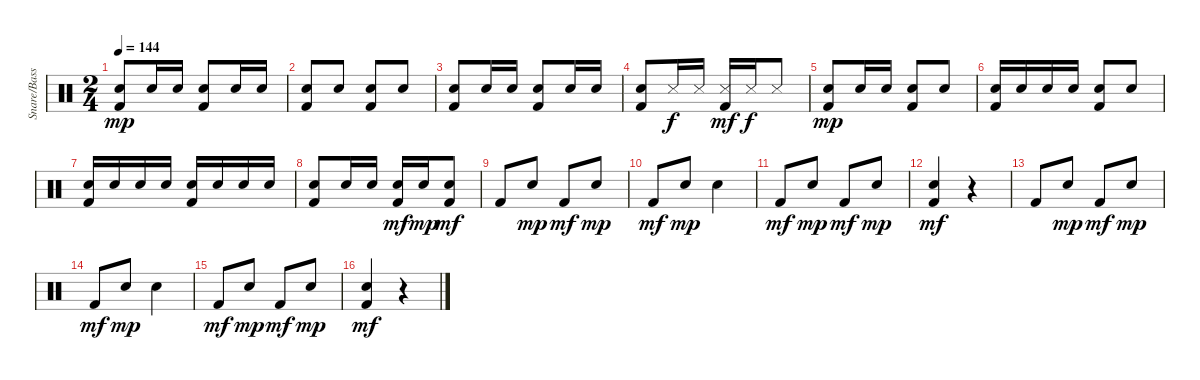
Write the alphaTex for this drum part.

\track ("Snare/Bass Dr       " "Snare/Bass") {instrument percussion}
\staff {score}
\articulation defaults
\ts (2 4)
\tempo 144
\clef neutral
\ks c
("Kick (hit) 2" "Snare (hit) 2").8{dy mp} "Snare (hit) 2".16 "Snare (hit) 2".16 ("Kick (hit) 2" "Snare (hit) 2").8 "Snare (hit) 2".16 "Snare (hit) 2".16 |
("Kick (hit) 2" "Snare (hit) 2").8 "Snare (hit) 2".8 ("Kick (hit) 2" "Snare (hit) 2").8 "Snare (hit) 2".8 |
("Kick (hit) 2" "Snare (hit) 2").8 "Snare (hit) 2".16 "Snare (hit) 2".16 ("Kick (hit) 2" "Snare (hit) 2").8 "Snare (hit) 2".16 "Snare (hit) 2".16 |
("Kick (hit) 2" "Snare (hit) 2").8 "Snare (side stick) 3".16{dy f} "Snare (side stick) 3".16 ("Kick (hit) 2" "Snare (side stick) 3").16{dy mf} "Snare (side stick) 3".16{dy f} "Snare (side stick) 3".8 |
("Kick (hit) 2" "Snare (hit) 2").8{dy mp} "Snare (hit) 2".16 "Snare (hit) 2".16 ("Kick (hit) 2" "Snare (hit) 2").8 "Snare (hit) 2".8 |
("Kick (hit) 2" "Snare (hit) 2").16 "Snare (hit) 2".16 "Snare (hit) 2".16 "Snare (hit) 2".16 ("Kick (hit) 2" "Snare (hit) 2").8 "Snare (hit) 2".8 |
("Kick (hit) 2" "Snare (hit) 2").16 "Snare (hit) 2".16 "Snare (hit) 2".16 "Snare (hit) 2".16 ("Kick (hit) 2" "Snare (hit) 2").16 "Snare (hit) 2".16 "Snare (hit) 2".16 "Snare (hit) 2".16 |
("Kick (hit) 2" "Snare (hit) 2").8 "Snare (hit) 2".16 "Snare (hit) 2".16 ("Snare (hit) 2" "Kick (hit) 2").16{dy mf} "Snare (hit) 2".16{dy mp} ("Snare (hit) 2" "Kick (hit) 2").8{dy mf} |
"Kick (hit) 2".8 "Snare (hit) 2".8{dy mp} "Kick (hit) 2".8{dy mf} "Snare (hit) 2".8{dy mp} |
"Kick (hit) 2".8{dy mf} "Snare (hit) 2".8{dy mp} "Snare (hit) 2".4 |
"Kick (hit) 2".8{dy mf} "Snare (hit) 2".8{dy mp} "Kick (hit) 2".8{dy mf} "Snare (hit) 2".8{dy mp} |
("Snare (hit) 2" "Kick (hit) 2").4{dy mf} r.4 |
"Kick (hit) 2".8 "Snare (hit) 2".8{dy mp} "Kick (hit) 2".8{dy mf} "Snare (hit) 2".8{dy mp} |
"Kick (hit) 2".8{dy mf} "Snare (hit) 2".8{dy mp} "Snare (hit) 2".4 |
"Kick (hit) 2".8{dy mf} "Snare (hit) 2".8{dy mp} "Kick (hit) 2".8{dy mf} "Snare (hit) 2".8{dy mp} |
("Snare (hit) 2" "Kick (hit) 2").4{dy mf} r.4
